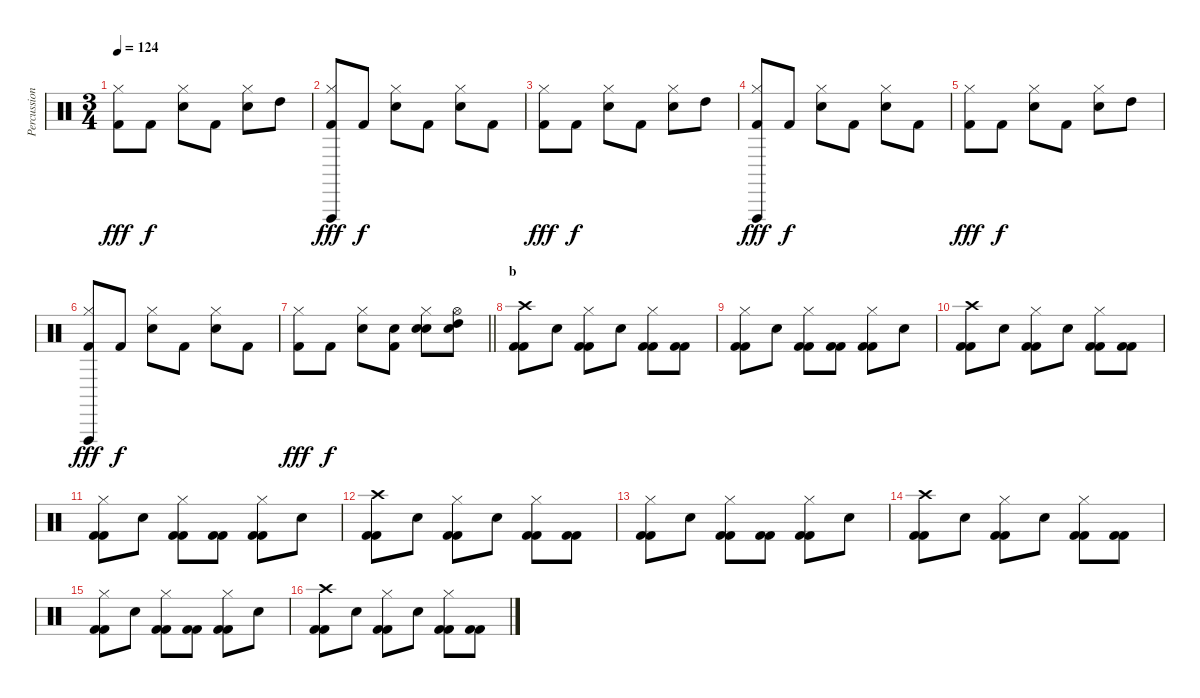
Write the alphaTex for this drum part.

\track ("Percussion" "Percussion") {instrument percussion}
\staff {score}
\articulation defaults
\ts (3 4)
\tempo 124
\clef neutral
\ks c
("Hi-Hat (closed)" "Kick (hit) 2").8{dy fff} "Kick (hit) 2".8{dy f} ("Hi-Hat (closed)" "Hand Clap (hit)").8 "Kick (hit) 2".8 ("Hi-Hat (closed)" "Hand Clap (hit)").8 "High Tom (hit)".8 |
("Hi-Hat (closed)" "Vibraslap (hit)" "Kick (hit) 2").8{dy fff} "Kick (hit) 2".8{dy f} ("Hi-Hat (closed)" "Hand Clap (hit)").8 "Kick (hit) 2".8 ("Hi-Hat (closed)" "Hand Clap (hit)").8 "Kick (hit) 2".8 |
("Hi-Hat (closed)" "Kick (hit) 2").8{dy fff} "Kick (hit) 2".8{dy f} ("Hi-Hat (closed)" "Hand Clap (hit)").8 "Kick (hit) 2".8 ("Hi-Hat (closed)" "Hand Clap (hit)").8 "High Tom (hit)".8 |
("Hi-Hat (closed)" "Vibraslap (hit)" "Kick (hit) 2").8{dy fff} "Kick (hit) 2".8{dy f} ("Hi-Hat (closed)" "Hand Clap (hit)").8 "Kick (hit) 2".8 ("Hi-Hat (closed)" "Hand Clap (hit)").8 "Kick (hit) 2".8 |
("Hi-Hat (closed)" "Kick (hit) 2").8{dy fff} "Kick (hit) 2".8{dy f} ("Hi-Hat (closed)" "Hand Clap (hit)").8 "Kick (hit) 2".8 ("Hi-Hat (closed)" "Hand Clap (hit)").8 "High Tom (hit)".8 |
("Hi-Hat (closed)" "Vibraslap (hit)" "Kick (hit) 2").8{dy fff} "Kick (hit) 2".8{dy f} ("Hi-Hat (closed)" "Hand Clap (hit)").8 "Kick (hit) 2".8 ("Hi-Hat (closed)" "Hand Clap (hit)").8 "Kick (hit) 2".8 |
\barLineRight lightlight
("Hi-Hat (closed)" "Kick (hit) 2").8{dy fff} "Kick (hit) 2".8{dy f} ("Hi-Hat (closed)" "Hand Clap (hit)").8 ("Snare (hit) 2" "Kick (hit) 2").8 ("Hi-Hat (closed)" "Hand Clap (hit)" "Snare (hit) 2").8 ("Snare (hit) 2" "High Tom (hit)" "Hi-Hat (open)").8 |
\section ("" "b")
("Crash high (hit)" "Kick (hit) 2" "Kick (hit) 2").8 "Snare (hit) 2".8 ("Hi-Hat (closed)" "Kick (hit) 2" "Kick (hit) 2").8 "Snare (hit) 2".8 ("Hi-Hat (closed)" "Kick (hit) 2" "Kick (hit) 2").8 ("Kick (hit) 2" "Kick (hit) 2").8 |
("Hi-Hat (closed)" "Kick (hit) 2" "Kick (hit) 2").8 "Snare (hit) 2".8 ("Hi-Hat (closed)" "Kick (hit) 2" "Kick (hit) 2").8 ("Kick (hit) 2" "Kick (hit) 2").8 ("Hi-Hat (closed)" "Kick (hit) 2" "Kick (hit) 2").8 "Snare (hit) 2".8 |
("Crash high (hit)" "Kick (hit) 2" "Kick (hit) 2").8 "Snare (hit) 2".8 ("Hi-Hat (closed)" "Kick (hit) 2" "Kick (hit) 2").8 "Snare (hit) 2".8 ("Hi-Hat (closed)" "Kick (hit) 2" "Kick (hit) 2").8 ("Kick (hit) 2" "Kick (hit) 2").8 |
("Hi-Hat (closed)" "Kick (hit) 2" "Kick (hit) 2").8 "Snare (hit) 2".8 ("Hi-Hat (closed)" "Kick (hit) 2" "Kick (hit) 2").8 ("Kick (hit) 2" "Kick (hit) 2").8 ("Hi-Hat (closed)" "Kick (hit) 2" "Kick (hit) 2").8 "Snare (hit) 2".8 |
("Crash high (hit)" "Kick (hit) 2" "Kick (hit) 2").8 "Snare (hit) 2".8 ("Hi-Hat (closed)" "Kick (hit) 2" "Kick (hit) 2").8 "Snare (hit) 2".8 ("Hi-Hat (closed)" "Kick (hit) 2" "Kick (hit) 2").8 ("Kick (hit) 2" "Kick (hit) 2").8 |
("Hi-Hat (closed)" "Kick (hit) 2" "Kick (hit) 2").8 "Snare (hit) 2".8 ("Hi-Hat (closed)" "Kick (hit) 2" "Kick (hit) 2").8 ("Kick (hit) 2" "Kick (hit) 2").8 ("Hi-Hat (closed)" "Kick (hit) 2" "Kick (hit) 2").8 "Snare (hit) 2".8 |
("Crash high (hit)" "Kick (hit) 2" "Kick (hit) 2").8 "Snare (hit) 2".8 ("Hi-Hat (closed)" "Kick (hit) 2" "Kick (hit) 2").8 "Snare (hit) 2".8 ("Hi-Hat (closed)" "Kick (hit) 2" "Kick (hit) 2").8 ("Kick (hit) 2" "Kick (hit) 2").8 |
("Hi-Hat (closed)" "Kick (hit) 2" "Kick (hit) 2").8 "Snare (hit) 2".8 ("Hi-Hat (closed)" "Kick (hit) 2" "Kick (hit) 2").8 ("Kick (hit) 2" "Kick (hit) 2").8 ("Hi-Hat (closed)" "Kick (hit) 2" "Kick (hit) 2").8 "Snare (hit) 2".8 |
("Crash high (hit)" "Kick (hit) 2" "Kick (hit) 2").8 "Snare (hit) 2".8 ("Hi-Hat (closed)" "Kick (hit) 2" "Kick (hit) 2").8 "Snare (hit) 2".8 ("Hi-Hat (closed)" "Kick (hit) 2" "Kick (hit) 2").8 ("Kick (hit) 2" "Kick (hit) 2").8
